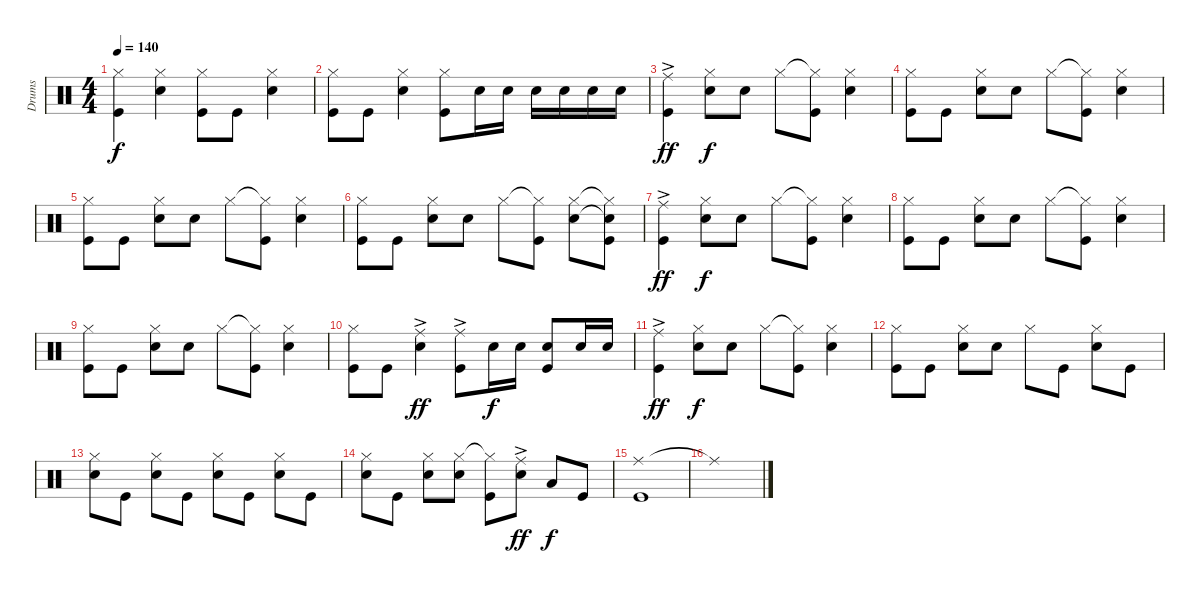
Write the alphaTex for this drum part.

\track ("Drums" "Drums") {instrument percussion}
\staff {score}
\articulation defaults
\ts (4 4)
\tempo 140
\clef neutral
\ks c
("Hi-Hat (closed)" "Kick (hit)").4{dy f} ("Hi-Hat (closed)" "Snare (hit) 2").4 ("Kick (hit)" "Hi-Hat (closed)").8 "Kick (hit)".8 ("Hi-Hat (closed)" "Snare (hit) 2").4 |
("Hi-Hat (closed)" "Kick (hit)").8 "Kick (hit)".8 ("Hi-Hat (closed)" "Snare (hit) 2").4 ("Hi-Hat (closed)" "Kick (hit)").8 "Snare (hit) 2".16 "Snare (hit) 2".16 "Snare (hit) 2".16 "Snare (hit) 2".16 "Snare (hit) 2".16 "Snare (hit) 2".16 |
("Ride (middle)" "Kick (hit)"{ac}).4{dy ff} ("Hi-Hat (closed)" "Snare (hit) 2").8{dy f} "Snare (hit) 2".8 "Hi-Hat (closed)".8 ("Hi-Hat (closed)"{t} "Kick (hit)").8 ("Hi-Hat (closed)" "Snare (hit) 2").4 |
("Kick (hit)" "Hi-Hat (closed)").8 "Kick (hit)".8 ("Snare (hit) 2" "Hi-Hat (closed)").8 "Snare (hit) 2".8 "Hi-Hat (closed)".8 ("Hi-Hat (closed)"{t} "Kick (hit)").8 ("Snare (hit) 2" "Hi-Hat (closed)").4 |
("Kick (hit)" "Hi-Hat (closed)").8 "Kick (hit)".8 ("Snare (hit) 2" "Hi-Hat (closed)").8 "Snare (hit) 2".8 "Hi-Hat (closed)".8 ("Hi-Hat (closed)"{t} "Kick (hit)").8 ("Snare (hit) 2" "Hi-Hat (closed)").4 |
("Kick (hit)" "Hi-Hat (closed)").8 "Kick (hit)".8 ("Snare (hit) 2" "Hi-Hat (closed)").8 "Snare (hit) 2".8 "Hi-Hat (closed)".8 ("Hi-Hat (closed)"{t} "Kick (hit)").8 ("Snare (hit) 2" "Hi-Hat (closed)").8 ("Snare (hit) 2"{t} "Hi-Hat (closed)"{t} "Kick (hit)").8 |
("Ride (middle)" "Kick (hit)"{ac}).4{dy ff} ("Hi-Hat (closed)" "Snare (hit) 2").8{dy f} "Snare (hit) 2".8 "Hi-Hat (closed)".8 ("Hi-Hat (closed)"{t} "Kick (hit)").8 ("Hi-Hat (closed)" "Snare (hit) 2").4 |
("Kick (hit)" "Hi-Hat (closed)").8 "Kick (hit)".8 ("Snare (hit) 2" "Hi-Hat (closed)").8 "Snare (hit) 2".8 "Hi-Hat (closed)".8 ("Hi-Hat (closed)"{t} "Kick (hit)").8 ("Snare (hit) 2" "Hi-Hat (closed)").4 |
("Kick (hit)" "Hi-Hat (closed)").8 "Kick (hit)".8 ("Snare (hit) 2" "Hi-Hat (closed)").8 "Snare (hit) 2".8 "Hi-Hat (closed)".8 ("Hi-Hat (closed)"{t} "Kick (hit)").8 ("Snare (hit) 2" "Hi-Hat (closed)").4 |
("Kick (hit)" "Hi-Hat (closed)").8 "Kick (hit)".8 ("Ride (middle)" "Snare (hit) 2"{ac}).4{dy ff} ("Kick (hit)"{ac} "Ride (middle)").8 "Snare (hit) 2".16{dy f} "Snare (hit) 2".16 ("Kick (hit)" "Snare (hit) 2").8 "Snare (hit) 2".16 "Snare (hit) 2".16 |
("Ride (middle)" "Kick (hit)"{ac}).4{dy ff} ("Hi-Hat (closed)" "Snare (hit) 2").8{dy f} "Snare (hit) 2".8 "Hi-Hat (closed)".8 ("Hi-Hat (closed)"{t} "Kick (hit)").8 ("Hi-Hat (closed)" "Snare (hit) 2").4 |
("Kick (hit)" "Hi-Hat (closed)").8 "Kick (hit)".8 ("Snare (hit) 2" "Hi-Hat (closed)").8 "Snare (hit) 2".8 "Hi-Hat (closed)".8 "Kick (hit)".8 ("Hi-Hat (closed)" "Snare (hit) 2").8 "Kick (hit)".8 |
("Hi-Hat (closed)" "Snare (hit) 2").8 "Kick (hit)".8 ("Hi-Hat (closed)" "Snare (hit) 2").8 "Kick (hit)".8 ("Hi-Hat (closed)" "Snare (hit) 2").8 "Kick (hit)".8 ("Hi-Hat (closed)" "Snare (hit) 2").8 "Kick (hit)".8 |
("Hi-Hat (closed)" "Snare (hit) 2").8 "Kick (hit)".8 ("Snare (hit) 2" "Hi-Hat (closed)").8 ("Snare (hit) 2" "Hi-Hat (closed)").8 ("Kick (hit)" "Hi-Hat (closed)"{t}).8 ("Ride (middle)"{ac} "Snare (hit) 2").8{dy ff} "Low Tom (hit)".8{dy f} "Kick (hit)".8 |
("Ride (middle)" "Kick (hit)").1 |
"Ride (middle)"{t}.1
